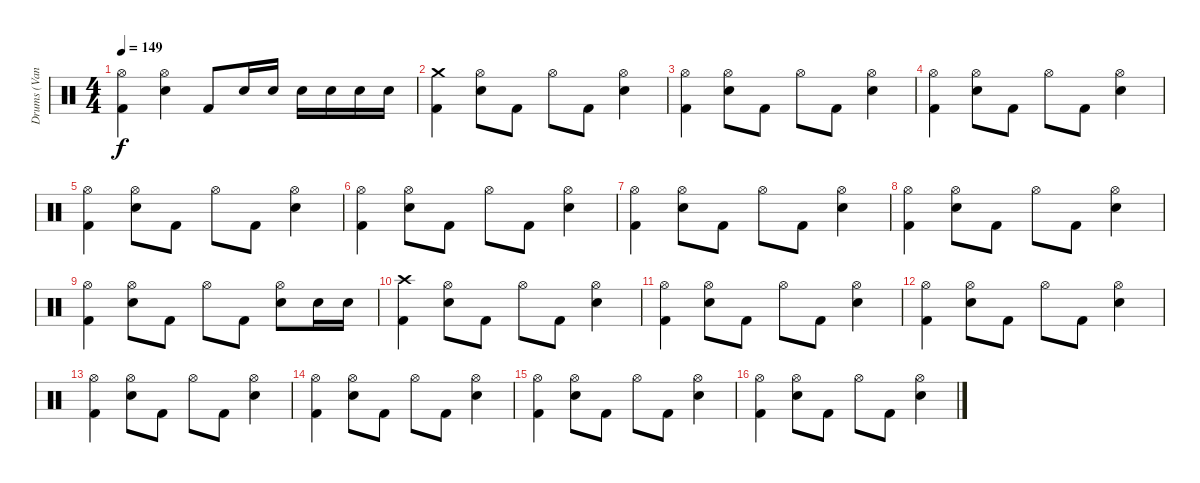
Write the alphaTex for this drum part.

\track ("Drums (Vandel)" "Drums (Van") {instrument percussion}
\staff {score}
\articulation defaults
\ts (4 4)
\tempo 149
\clef neutral
\ks c
("Hi-Hat (open)" "Kick (hit) 2").4{dy f} ("Hi-Hat (open)" "Snare (hit) 2").4 "Kick (hit) 2".8 "Snare (hit) 2".16 "Snare (hit) 2".16 "Snare (hit) 2".16 "Snare (hit) 2".16 "Snare (hit) 2".16 "Snare (hit) 2".16 |
("Crash medium (hit)" "Kick (hit) 2").4 ("Hi-Hat (open)" "Snare (hit) 2").8 "Kick (hit) 2".8 "Hi-Hat (open)".8 "Kick (hit) 2".8 ("Hi-Hat (open)" "Snare (hit) 2").4 |
("Hi-Hat (open)" "Kick (hit) 2").4 ("Hi-Hat (open)" "Snare (hit) 2").8 "Kick (hit) 2".8 "Hi-Hat (open)".8 "Kick (hit) 2".8 ("Hi-Hat (open)" "Snare (hit) 2").4 |
("Hi-Hat (open)" "Kick (hit) 2").4 ("Hi-Hat (open)" "Snare (hit) 2").8 "Kick (hit) 2".8 "Hi-Hat (open)".8 "Kick (hit) 2".8 ("Hi-Hat (open)" "Snare (hit) 2").4 |
("Hi-Hat (open)" "Kick (hit) 2").4 ("Hi-Hat (open)" "Snare (hit) 2").8 "Kick (hit) 2".8 "Hi-Hat (open)".8 "Kick (hit) 2".8 ("Hi-Hat (open)" "Snare (hit) 2").4 |
("Hi-Hat (open)" "Kick (hit) 2").4 ("Hi-Hat (open)" "Snare (hit) 2").8 "Kick (hit) 2".8 "Hi-Hat (open)".8 "Kick (hit) 2".8 ("Hi-Hat (open)" "Snare (hit) 2").4 |
("Hi-Hat (open)" "Kick (hit) 2").4 ("Hi-Hat (open)" "Snare (hit) 2").8 "Kick (hit) 2".8 "Hi-Hat (open)".8 "Kick (hit) 2".8 ("Hi-Hat (open)" "Snare (hit) 2").4 |
("Hi-Hat (open)" "Kick (hit) 2").4 ("Hi-Hat (open)" "Snare (hit) 2").8 "Kick (hit) 2".8 "Hi-Hat (open)".8 "Kick (hit) 2".8 ("Hi-Hat (open)" "Snare (hit) 2").4 |
("Hi-Hat (open)" "Kick (hit) 2").4 ("Hi-Hat (open)" "Snare (hit) 2").8 "Kick (hit) 2".8 "Hi-Hat (open)".8 "Kick (hit) 2".8 ("Hi-Hat (open)" "Snare (hit) 2").8 "Snare (hit) 2".16 "Snare (hit) 2".16 |
("Crash high (hit)" "Kick (hit) 2").4 ("Hi-Hat (open)" "Snare (hit) 2").8 "Kick (hit) 2".8 "Hi-Hat (open)".8 "Kick (hit) 2".8 ("Hi-Hat (open)" "Snare (hit) 2").4 |
("Hi-Hat (open)" "Kick (hit) 2").4 ("Hi-Hat (open)" "Snare (hit) 2").8 "Kick (hit) 2".8 "Hi-Hat (open)".8 "Kick (hit) 2".8 ("Hi-Hat (open)" "Snare (hit) 2").4 |
("Hi-Hat (open)" "Kick (hit) 2").4 ("Hi-Hat (open)" "Snare (hit) 2").8 "Kick (hit) 2".8 "Hi-Hat (open)".8 "Kick (hit) 2".8 ("Hi-Hat (open)" "Snare (hit) 2").4 |
("Hi-Hat (open)" "Kick (hit) 2").4 ("Hi-Hat (open)" "Snare (hit) 2").8 "Kick (hit) 2".8 "Hi-Hat (open)".8 "Kick (hit) 2".8 ("Hi-Hat (open)" "Snare (hit) 2").4 |
("Hi-Hat (open)" "Kick (hit) 2").4 ("Hi-Hat (open)" "Snare (hit) 2").8 "Kick (hit) 2".8 "Hi-Hat (open)".8 "Kick (hit) 2".8 ("Hi-Hat (open)" "Snare (hit) 2").4 |
("Hi-Hat (open)" "Kick (hit) 2").4 ("Hi-Hat (open)" "Snare (hit) 2").8 "Kick (hit) 2".8 "Hi-Hat (open)".8 "Kick (hit) 2".8 ("Hi-Hat (open)" "Snare (hit) 2").4 |
("Hi-Hat (open)" "Kick (hit) 2").4 ("Hi-Hat (open)" "Snare (hit) 2").8 "Kick (hit) 2".8 "Hi-Hat (open)".8 "Kick (hit) 2".8 ("Hi-Hat (open)" "Snare (hit) 2").4
